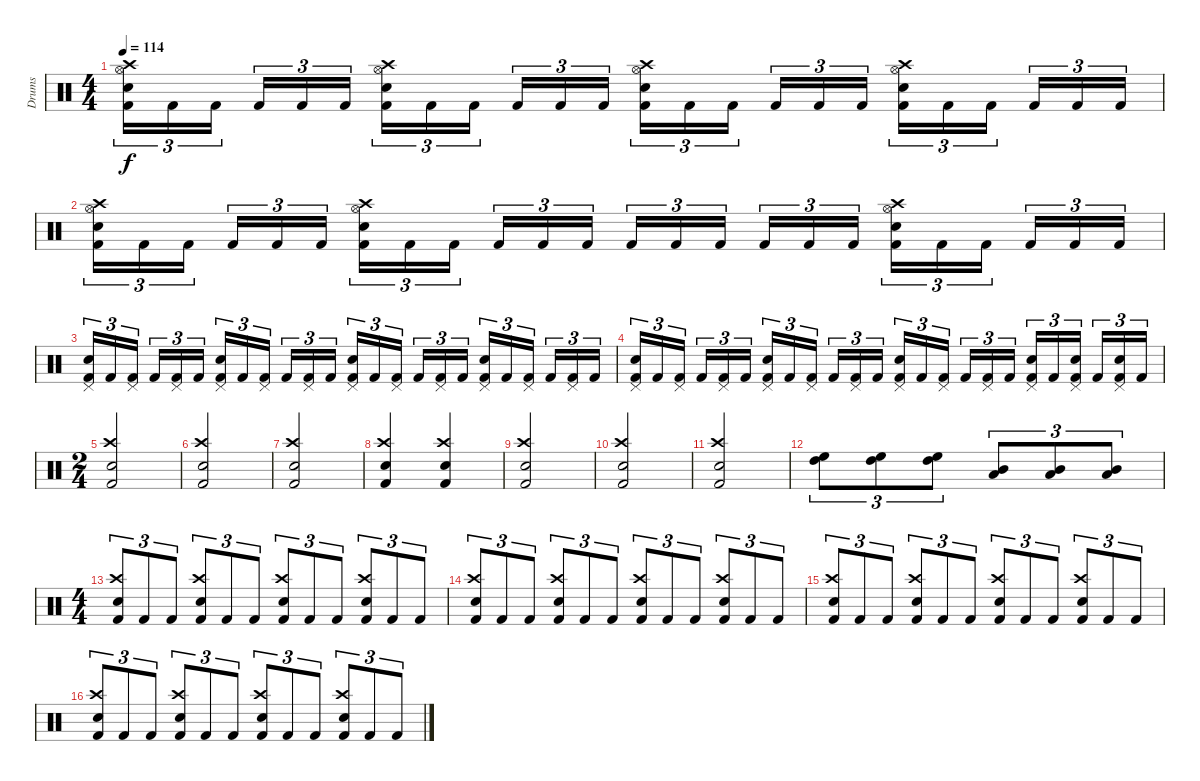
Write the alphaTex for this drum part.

\track ("Drums" "Drums") {instrument percussion}
\staff {score}
\articulation defaults
\ts (4 4)
\tempo 114
\clef neutral
\ks c
("Hi-Hat (open)" "Electric Snare (hit)" "Crash high (hit)" "Kick (hit) 2").16{tu (3 2) dy f} "Kick (hit) 2".16{tu (3 2)} "Kick (hit) 2".16{tu (3 2)} "Kick (hit) 2".16{tu (3 2)} "Kick (hit) 2".16{tu (3 2)} "Kick (hit) 2".16{tu (3 2)} ("Hi-Hat (open)" "Electric Snare (hit)" "Crash high (hit)" "Kick (hit) 2").16{tu (3 2)} "Kick (hit) 2".16{tu (3 2)} "Kick (hit) 2".16{tu (3 2)} "Kick (hit) 2".16{tu (3 2)} "Kick (hit) 2".16{tu (3 2)} "Kick (hit) 2".16{tu (3 2)} ("Hi-Hat (open)" "Electric Snare (hit)" "Crash high (hit)" "Kick (hit) 2").16{tu (3 2)} "Kick (hit) 2".16{tu (3 2)} "Kick (hit) 2".16{tu (3 2)} "Kick (hit) 2".16{tu (3 2)} "Kick (hit) 2".16{tu (3 2)} "Kick (hit) 2".16{tu (3 2)} ("Hi-Hat (open)" "Electric Snare (hit)" "Crash high (hit)" "Kick (hit) 2").16{tu (3 2)} "Kick (hit) 2".16{tu (3 2)} "Kick (hit) 2".16{tu (3 2)} "Kick (hit) 2".16{tu (3 2)} "Kick (hit) 2".16{tu (3 2)} "Kick (hit) 2".16{tu (3 2)} |
("Hi-Hat (open)" "Electric Snare (hit)" "Crash high (hit)" "Kick (hit) 2").16{tu (3 2)} "Kick (hit) 2".16{tu (3 2)} "Kick (hit) 2".16{tu (3 2)} "Kick (hit) 2".16{tu (3 2)} "Kick (hit) 2".16{tu (3 2)} "Kick (hit) 2".16{tu (3 2)} ("Hi-Hat (open)" "Electric Snare (hit)" "Crash high (hit)" "Kick (hit) 2").16{tu (3 2)} "Kick (hit) 2".16{tu (3 2)} "Kick (hit) 2".16{tu (3 2)} "Kick (hit) 2".16{tu (3 2)} "Kick (hit) 2".16{tu (3 2)} "Kick (hit) 2".16{tu (3 2)} "Kick (hit) 2".16{tu (3 2)} "Kick (hit) 2".16{tu (3 2)} "Kick (hit) 2".16{tu (3 2)} "Kick (hit) 2".16{tu (3 2)} "Kick (hit) 2".16{tu (3 2)} "Kick (hit) 2".16{tu (3 2)} ("Hi-Hat (open)" "Electric Snare (hit)" "Crash high (hit)" "Kick (hit) 2").16{tu (3 2)} "Kick (hit) 2".16{tu (3 2)} "Kick (hit) 2".16{tu (3 2)} "Kick (hit) 2".16{tu (3 2)} "Kick (hit) 2".16{tu (3 2)} "Kick (hit) 2".16{tu (3 2)} |
("Pedal Hi-Hat (hit)" "Electric Snare (hit)" "Kick (hit) 2").16{tu (3 2)} "Kick (hit) 2".16{tu (3 2)} ("Pedal Hi-Hat (hit)" "Kick (hit) 2").16{tu (3 2)} "Kick (hit) 2".16{tu (3 2)} ("Pedal Hi-Hat (hit)" "Kick (hit) 2").16{tu (3 2)} "Kick (hit) 2".16{tu (3 2)} ("Pedal Hi-Hat (hit)" "Electric Snare (hit)" "Kick (hit) 2").16{tu (3 2)} "Kick (hit) 2".16{tu (3 2)} ("Pedal Hi-Hat (hit)" "Kick (hit) 2").16{tu (3 2)} "Kick (hit) 2".16{tu (3 2)} ("Pedal Hi-Hat (hit)" "Kick (hit) 2").16{tu (3 2)} "Kick (hit) 2".16{tu (3 2)} ("Pedal Hi-Hat (hit)" "Electric Snare (hit)" "Kick (hit) 2").16{tu (3 2)} "Kick (hit) 2".16{tu (3 2)} ("Pedal Hi-Hat (hit)" "Kick (hit) 2").16{tu (3 2)} "Kick (hit) 2".16{tu (3 2)} ("Pedal Hi-Hat (hit)" "Kick (hit) 2").16{tu (3 2)} "Kick (hit) 2".16{tu (3 2)} ("Pedal Hi-Hat (hit)" "Electric Snare (hit)" "Kick (hit) 2").16{tu (3 2)} "Kick (hit) 2".16{tu (3 2)} ("Pedal Hi-Hat (hit)" "Kick (hit) 2").16{tu (3 2)} "Kick (hit) 2".16{tu (3 2)} ("Pedal Hi-Hat (hit)" "Kick (hit) 2").16{tu (3 2)} "Kick (hit) 2".16{tu (3 2)} |
("Pedal Hi-Hat (hit)" "Electric Snare (hit)" "Kick (hit) 2").16{tu (3 2)} "Kick (hit) 2".16{tu (3 2)} ("Pedal Hi-Hat (hit)" "Kick (hit) 2").16{tu (3 2)} "Kick (hit) 2".16{tu (3 2)} ("Pedal Hi-Hat (hit)" "Kick (hit) 2").16{tu (3 2)} "Kick (hit) 2".16{tu (3 2)} ("Pedal Hi-Hat (hit)" "Electric Snare (hit)" "Kick (hit) 2").16{tu (3 2)} "Kick (hit) 2".16{tu (3 2)} ("Pedal Hi-Hat (hit)" "Kick (hit) 2").16{tu (3 2)} "Kick (hit) 2".16{tu (3 2)} ("Pedal Hi-Hat (hit)" "Kick (hit) 2").16{tu (3 2)} "Kick (hit) 2".16{tu (3 2)} ("Pedal Hi-Hat (hit)" "Electric Snare (hit)" "Kick (hit) 2").16{tu (3 2)} "Kick (hit) 2".16{tu (3 2)} ("Pedal Hi-Hat (hit)" "Kick (hit) 2").16{tu (3 2)} "Kick (hit) 2".16{tu (3 2)} ("Pedal Hi-Hat (hit)" "Kick (hit) 2").16{tu (3 2)} "Kick (hit) 2".16{tu (3 2)} ("Pedal Hi-Hat (hit)" "Electric Snare (hit)" "Kick (hit) 2").16{tu (3 2)} "Kick (hit) 2".16{tu (3 2)} ("Pedal Hi-Hat (hit)" "Electric Snare (hit)" "Kick (hit) 2").16{tu (3 2)} "Kick (hit) 2".16{tu (3 2)} ("Pedal Hi-Hat (hit)" "Electric Snare (hit)" "Kick (hit) 2").16{tu (3 2)} "Kick (hit) 2".16{tu (3 2)} |
\ts (2 4)
("Crash high (hit)" "Electric Snare (hit)" "Kick (hit) 2").2 |
("Crash high (hit)" "Electric Snare (hit)" "Kick (hit) 2").2 |
("Crash high (hit)" "Electric Snare (hit)" "Kick (hit) 2").2 |
("Crash high (hit)" "Electric Snare (hit)" "Kick (hit) 2").4 ("Crash high (hit)" "Electric Snare (hit)" "Kick (hit) 2").4 |
("Crash high (hit)" "Electric Snare (hit)" "Kick (hit) 2").2 |
("Crash high (hit)" "Electric Snare (hit)" "Kick (hit) 2").2 |
("Crash high (hit)" "Electric Snare (hit)" "Kick (hit) 2").2 |
("High Tom (hit)" "High Floor Tom (hit)").8{tu (3 2)} ("High Tom (hit)" "High Floor Tom (hit)").8{tu (3 2)} ("High Tom (hit)" "High Floor Tom (hit)").8{tu (3 2)} ("Low Tom (hit)" "Mid Tom (hit)").8{tu (3 2)} ("Low Tom (hit)" "Mid Tom (hit)").8{tu (3 2)} ("Low Tom (hit)" "Mid Tom (hit)").8{tu (3 2)} |
\ts (4 4)
("Electric Snare (hit)" "Crash high (hit)" "Kick (hit) 2").8{tu (3 2)} "Kick (hit) 2".8{tu (3 2)} "Kick (hit) 2".8{tu (3 2)} ("Electric Snare (hit)" "Crash high (hit)" "Kick (hit) 2").8{tu (3 2)} "Kick (hit) 2".8{tu (3 2)} "Kick (hit) 2".8{tu (3 2)} ("Electric Snare (hit)" "Crash high (hit)" "Kick (hit) 2").8{tu (3 2)} "Kick (hit) 2".8{tu (3 2)} "Kick (hit) 2".8{tu (3 2)} ("Electric Snare (hit)" "Crash high (hit)" "Kick (hit) 2").8{tu (3 2)} "Kick (hit) 2".8{tu (3 2)} "Kick (hit) 2".8{tu (3 2)} |
("Electric Snare (hit)" "Crash high (hit)" "Kick (hit) 2").8{tu (3 2)} "Kick (hit) 2".8{tu (3 2)} "Kick (hit) 2".8{tu (3 2)} ("Electric Snare (hit)" "Crash high (hit)" "Kick (hit) 2").8{tu (3 2)} "Kick (hit) 2".8{tu (3 2)} "Kick (hit) 2".8{tu (3 2)} ("Electric Snare (hit)" "Crash high (hit)" "Kick (hit) 2").8{tu (3 2)} "Kick (hit) 2".8{tu (3 2)} "Kick (hit) 2".8{tu (3 2)} ("Electric Snare (hit)" "Crash high (hit)" "Kick (hit) 2").8{tu (3 2)} "Kick (hit) 2".8{tu (3 2)} "Kick (hit) 2".8{tu (3 2)} |
("Electric Snare (hit)" "Crash high (hit)" "Kick (hit) 2").8{tu (3 2)} "Kick (hit) 2".8{tu (3 2)} "Kick (hit) 2".8{tu (3 2)} ("Electric Snare (hit)" "Crash high (hit)" "Kick (hit) 2").8{tu (3 2)} "Kick (hit) 2".8{tu (3 2)} "Kick (hit) 2".8{tu (3 2)} ("Electric Snare (hit)" "Crash high (hit)" "Kick (hit) 2").8{tu (3 2)} "Kick (hit) 2".8{tu (3 2)} "Kick (hit) 2".8{tu (3 2)} ("Electric Snare (hit)" "Crash high (hit)" "Kick (hit) 2").8{tu (3 2)} "Kick (hit) 2".8{tu (3 2)} "Kick (hit) 2".8{tu (3 2)} |
("Electric Snare (hit)" "Crash high (hit)" "Kick (hit) 2").8{tu (3 2)} "Kick (hit) 2".8{tu (3 2)} "Kick (hit) 2".8{tu (3 2)} ("Electric Snare (hit)" "Crash high (hit)" "Kick (hit) 2").8{tu (3 2)} "Kick (hit) 2".8{tu (3 2)} "Kick (hit) 2".8{tu (3 2)} ("Electric Snare (hit)" "Crash high (hit)" "Kick (hit) 2").8{tu (3 2)} "Kick (hit) 2".8{tu (3 2)} "Kick (hit) 2".8{tu (3 2)} ("Electric Snare (hit)" "Crash high (hit)" "Kick (hit) 2").8{tu (3 2)} "Kick (hit) 2".8{tu (3 2)} "Kick (hit) 2".8{tu (3 2)}
